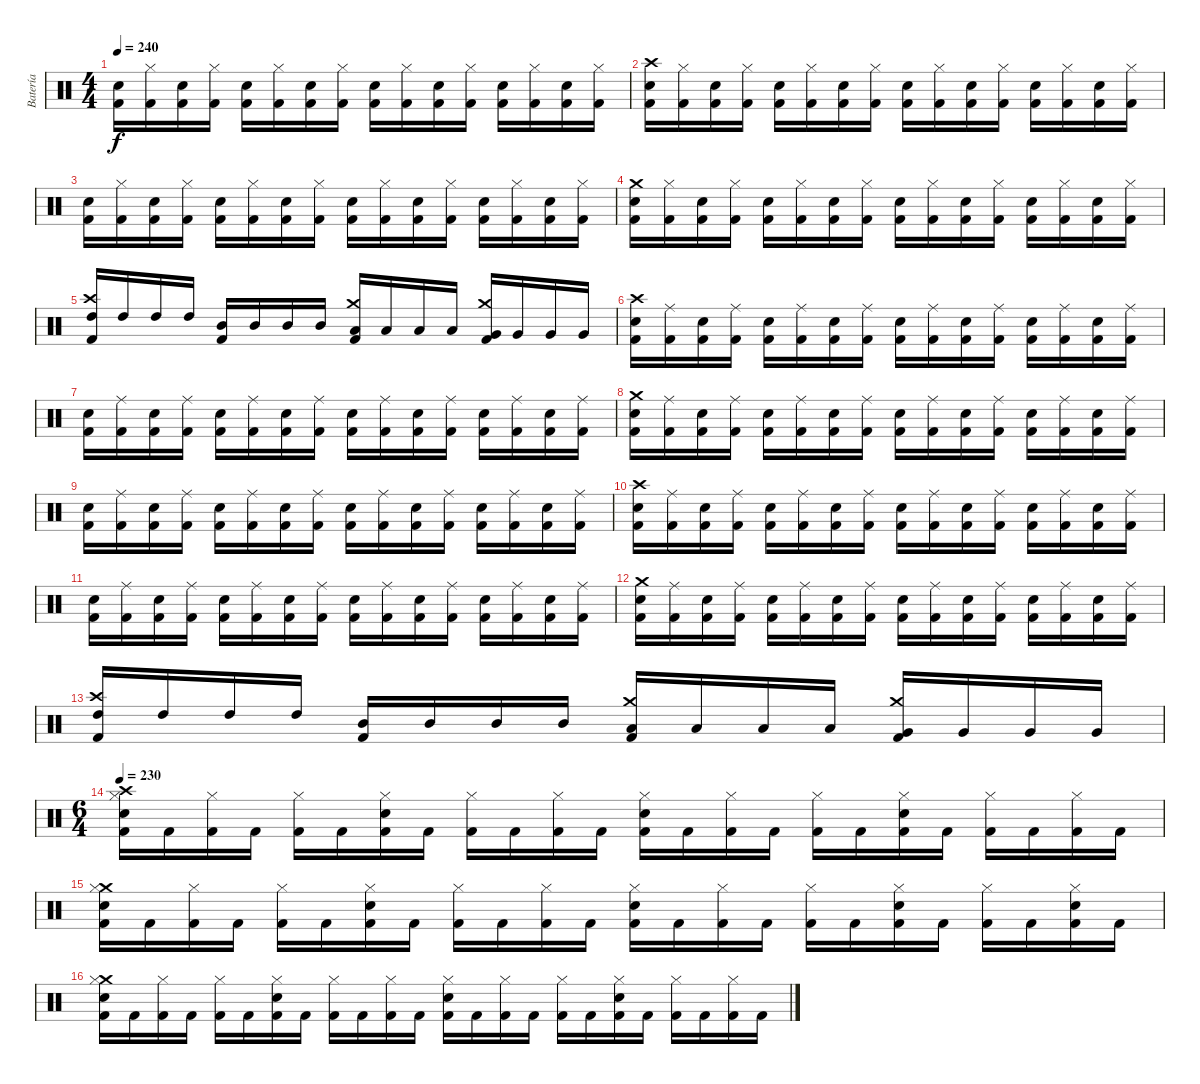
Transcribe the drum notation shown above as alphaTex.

\track ("Batería" "Batería") {instrument percussion}
\staff {score}
\articulation defaults
\ts (4 4)
\tempo 240
\clef neutral
\ks c
("Kick (hit) 2" "Electric Snare (hit)").16{dy f} ("Kick (hit) 2" "Hi-Hat (closed)").16 ("Kick (hit) 2" "Electric Snare (hit)").16 ("Kick (hit) 2" "Hi-Hat (closed)").16 ("Kick (hit) 2" "Electric Snare (hit)").16 ("Kick (hit) 2" "Hi-Hat (closed)").16 ("Kick (hit) 2" "Electric Snare (hit)").16 ("Kick (hit) 2" "Hi-Hat (closed)").16 ("Kick (hit) 2" "Electric Snare (hit)").16 ("Kick (hit) 2" "Hi-Hat (closed)").16 ("Kick (hit) 2" "Electric Snare (hit)").16 ("Kick (hit) 2" "Hi-Hat (closed)").16 ("Kick (hit) 2" "Electric Snare (hit)").16 ("Kick (hit) 2" "Hi-Hat (closed)").16 ("Kick (hit) 2" "Electric Snare (hit)").16 ("Kick (hit) 2" "Hi-Hat (closed)").16 |
("Crash high (hit)" "Kick (hit) 2" "Electric Snare (hit)").16 ("Kick (hit) 2" "Hi-Hat (closed)").16 ("Kick (hit) 2" "Electric Snare (hit)").16 ("Kick (hit) 2" "Hi-Hat (closed)").16 ("Kick (hit) 2" "Electric Snare (hit)").16 ("Kick (hit) 2" "Hi-Hat (closed)").16 ("Kick (hit) 2" "Electric Snare (hit)").16 ("Kick (hit) 2" "Hi-Hat (closed)").16 ("Kick (hit) 2" "Electric Snare (hit)").16 ("Kick (hit) 2" "Hi-Hat (closed)").16 ("Kick (hit) 2" "Electric Snare (hit)").16 ("Kick (hit) 2" "Hi-Hat (closed)").16 ("Kick (hit) 2" "Electric Snare (hit)").16 ("Kick (hit) 2" "Hi-Hat (closed)").16 ("Kick (hit) 2" "Electric Snare (hit)").16 ("Kick (hit) 2" "Hi-Hat (closed)").16 |
("Kick (hit) 2" "Electric Snare (hit)").16 ("Kick (hit) 2" "Hi-Hat (closed)").16 ("Kick (hit) 2" "Electric Snare (hit)").16 ("Kick (hit) 2" "Hi-Hat (closed)").16 ("Kick (hit) 2" "Electric Snare (hit)").16 ("Kick (hit) 2" "Hi-Hat (closed)").16 ("Kick (hit) 2" "Electric Snare (hit)").16 ("Kick (hit) 2" "Hi-Hat (closed)").16 ("Kick (hit) 2" "Electric Snare (hit)").16 ("Kick (hit) 2" "Hi-Hat (closed)").16 ("Kick (hit) 2" "Electric Snare (hit)").16 ("Kick (hit) 2" "Hi-Hat (closed)").16 ("Kick (hit) 2" "Electric Snare (hit)").16 ("Kick (hit) 2" "Hi-Hat (closed)").16 ("Kick (hit) 2" "Electric Snare (hit)").16 ("Kick (hit) 2" "Hi-Hat (closed)").16 |
("Crash medium (hit)" "Kick (hit) 2" "Electric Snare (hit)").16 ("Kick (hit) 2" "Hi-Hat (closed)").16 ("Kick (hit) 2" "Electric Snare (hit)").16 ("Kick (hit) 2" "Hi-Hat (closed)").16 ("Kick (hit) 2" "Electric Snare (hit)").16 ("Kick (hit) 2" "Hi-Hat (closed)").16 ("Kick (hit) 2" "Electric Snare (hit)").16 ("Kick (hit) 2" "Hi-Hat (closed)").16 ("Kick (hit) 2" "Electric Snare (hit)").16 ("Kick (hit) 2" "Hi-Hat (closed)").16 ("Kick (hit) 2" "Electric Snare (hit)").16 ("Kick (hit) 2" "Hi-Hat (closed)").16 ("Kick (hit) 2" "Electric Snare (hit)").16 ("Kick (hit) 2" "Hi-Hat (closed)").16 ("Kick (hit) 2" "Electric Snare (hit)").16 ("Kick (hit) 2" "Hi-Hat (closed)").16 |
("Crash high (hit)" "Kick (hit) 2" "High Tom (hit)").16 "High Tom (hit)".16 "High Tom (hit)".16 "High Tom (hit)".16 ("Kick (hit) 2" "Mid Tom (hit)").16 "Mid Tom (hit)".16 "Mid Tom (hit)".16 "Mid Tom (hit)".16 ("Crash medium (hit)" "Kick (hit) 2" "Low Tom (hit)").16 "Low Tom (hit)".16 "Low Tom (hit)".16 "Low Tom (hit)".16 ("Crash medium (hit)" "Kick (hit) 2" "Very Low Tom (hit)").16 "Very Low Tom (hit)".16 "Very Low Tom (hit)".16 "Very Low Tom (hit)".16 |
("Crash high (hit)" "Kick (hit) 2" "Electric Snare (hit)").16 ("Kick (hit) 2" "Ride (middle)").16 ("Kick (hit) 2" "Electric Snare (hit)").16 ("Kick (hit) 2" "Ride (middle)").16 ("Kick (hit) 2" "Electric Snare (hit)").16 ("Kick (hit) 2" "Ride (middle)").16 ("Kick (hit) 2" "Electric Snare (hit)").16 ("Kick (hit) 2" "Ride (middle)").16 ("Kick (hit) 2" "Electric Snare (hit)").16 ("Kick (hit) 2" "Ride (middle)").16 ("Kick (hit) 2" "Electric Snare (hit)").16 ("Kick (hit) 2" "Ride (middle)").16 ("Kick (hit) 2" "Electric Snare (hit)").16 ("Kick (hit) 2" "Ride (middle)").16 ("Kick (hit) 2" "Electric Snare (hit)").16 ("Kick (hit) 2" "Ride (middle)").16 |
("Kick (hit) 2" "Electric Snare (hit)").16 ("Kick (hit) 2" "Ride (middle)").16 ("Kick (hit) 2" "Electric Snare (hit)").16 ("Kick (hit) 2" "Ride (middle)").16 ("Kick (hit) 2" "Electric Snare (hit)").16 ("Kick (hit) 2" "Ride (middle)").16 ("Kick (hit) 2" "Electric Snare (hit)").16 ("Kick (hit) 2" "Ride (middle)").16 ("Kick (hit) 2" "Electric Snare (hit)").16 ("Kick (hit) 2" "Ride (middle)").16 ("Kick (hit) 2" "Electric Snare (hit)").16 ("Kick (hit) 2" "Ride (middle)").16 ("Kick (hit) 2" "Electric Snare (hit)").16 ("Kick (hit) 2" "Ride (middle)").16 ("Kick (hit) 2" "Electric Snare (hit)").16 ("Kick (hit) 2" "Ride (middle)").16 |
("Crash medium (hit)" "Kick (hit) 2" "Electric Snare (hit)").16 ("Kick (hit) 2" "Ride (middle)").16 ("Kick (hit) 2" "Electric Snare (hit)").16 ("Kick (hit) 2" "Ride (middle)").16 ("Kick (hit) 2" "Electric Snare (hit)").16 ("Kick (hit) 2" "Ride (middle)").16 ("Kick (hit) 2" "Electric Snare (hit)").16 ("Kick (hit) 2" "Ride (middle)").16 ("Kick (hit) 2" "Electric Snare (hit)").16 ("Kick (hit) 2" "Ride (middle)").16 ("Kick (hit) 2" "Electric Snare (hit)").16 ("Kick (hit) 2" "Ride (middle)").16 ("Kick (hit) 2" "Electric Snare (hit)").16 ("Kick (hit) 2" "Ride (middle)").16 ("Kick (hit) 2" "Electric Snare (hit)").16 ("Kick (hit) 2" "Ride (middle)").16 |
("Kick (hit) 2" "Electric Snare (hit)").16 ("Kick (hit) 2" "Ride (middle)").16 ("Kick (hit) 2" "Electric Snare (hit)").16 ("Kick (hit) 2" "Ride (middle)").16 ("Kick (hit) 2" "Electric Snare (hit)").16 ("Kick (hit) 2" "Ride (middle)").16 ("Kick (hit) 2" "Electric Snare (hit)").16 ("Kick (hit) 2" "Ride (middle)").16 ("Kick (hit) 2" "Electric Snare (hit)").16 ("Kick (hit) 2" "Ride (middle)").16 ("Kick (hit) 2" "Electric Snare (hit)").16 ("Kick (hit) 2" "Ride (middle)").16 ("Kick (hit) 2" "Electric Snare (hit)").16 ("Kick (hit) 2" "Ride (middle)").16 ("Kick (hit) 2" "Electric Snare (hit)").16 ("Kick (hit) 2" "Ride (middle)").16 |
("Crash high (hit)" "Kick (hit) 2" "Electric Snare (hit)").16 ("Kick (hit) 2" "Ride (middle)").16 ("Kick (hit) 2" "Electric Snare (hit)").16 ("Kick (hit) 2" "Ride (middle)").16 ("Kick (hit) 2" "Electric Snare (hit)").16 ("Kick (hit) 2" "Ride (middle)").16 ("Kick (hit) 2" "Electric Snare (hit)").16 ("Kick (hit) 2" "Ride (middle)").16 ("Kick (hit) 2" "Electric Snare (hit)").16 ("Kick (hit) 2" "Ride (middle)").16 ("Kick (hit) 2" "Electric Snare (hit)").16 ("Kick (hit) 2" "Ride (middle)").16 ("Kick (hit) 2" "Electric Snare (hit)").16 ("Kick (hit) 2" "Ride (middle)").16 ("Kick (hit) 2" "Electric Snare (hit)").16 ("Kick (hit) 2" "Ride (middle)").16 |
("Kick (hit) 2" "Electric Snare (hit)").16 ("Kick (hit) 2" "Ride (middle)").16 ("Kick (hit) 2" "Electric Snare (hit)").16 ("Kick (hit) 2" "Ride (middle)").16 ("Kick (hit) 2" "Electric Snare (hit)").16 ("Kick (hit) 2" "Ride (middle)").16 ("Kick (hit) 2" "Electric Snare (hit)").16 ("Kick (hit) 2" "Ride (middle)").16 ("Kick (hit) 2" "Electric Snare (hit)").16 ("Kick (hit) 2" "Ride (middle)").16 ("Kick (hit) 2" "Electric Snare (hit)").16 ("Kick (hit) 2" "Ride (middle)").16 ("Kick (hit) 2" "Electric Snare (hit)").16 ("Kick (hit) 2" "Ride (middle)").16 ("Kick (hit) 2" "Electric Snare (hit)").16 ("Kick (hit) 2" "Ride (middle)").16 |
("Crash medium (hit)" "Kick (hit) 2" "Electric Snare (hit)").16 ("Kick (hit) 2" "Ride (middle)").16 ("Kick (hit) 2" "Electric Snare (hit)").16 ("Kick (hit) 2" "Ride (middle)").16 ("Kick (hit) 2" "Electric Snare (hit)").16 ("Kick (hit) 2" "Ride (middle)").16 ("Kick (hit) 2" "Electric Snare (hit)").16 ("Kick (hit) 2" "Ride (middle)").16 ("Kick (hit) 2" "Electric Snare (hit)").16 ("Kick (hit) 2" "Ride (middle)").16 ("Kick (hit) 2" "Electric Snare (hit)").16 ("Kick (hit) 2" "Ride (middle)").16 ("Kick (hit) 2" "Electric Snare (hit)").16 ("Kick (hit) 2" "Ride (middle)").16 ("Kick (hit) 2" "Electric Snare (hit)").16 ("Kick (hit) 2" "Ride (middle)").16 |
("Crash high (hit)" "Kick (hit) 2" "High Tom (hit)").16 "High Tom (hit)".16 "High Tom (hit)".16 "High Tom (hit)".16 ("Kick (hit) 2" "Mid Tom (hit)").16 "Mid Tom (hit)".16 "Mid Tom (hit)".16 "Mid Tom (hit)".16 ("Crash medium (hit)" "Kick (hit) 2" "Low Tom (hit)").16 "Low Tom (hit)".16 "Low Tom (hit)".16 "Low Tom (hit)".16 ("Crash medium (hit)" "Kick (hit) 2" "Very Low Tom (hit)").16 "Very Low Tom (hit)".16 "Very Low Tom (hit)".16 "Very Low Tom (hit)".16 |
\ts (6 4)
\tempo 230
("Crash high (hit)" "Electric Snare (hit)" "Hi-Hat (closed)" "Kick (hit) 2").16 "Kick (hit) 2".16 ("Hi-Hat (closed)" "Kick (hit) 2").16 "Kick (hit) 2".16 ("Hi-Hat (closed)" "Kick (hit) 2").16 "Kick (hit) 2".16 ("Electric Snare (hit)" "Hi-Hat (closed)" "Kick (hit) 2").16 "Kick (hit) 2".16 ("Hi-Hat (closed)" "Kick (hit) 2").16 "Kick (hit) 2".16 ("Hi-Hat (closed)" "Kick (hit) 2").16 "Kick (hit) 2".16 ("Electric Snare (hit)" "Hi-Hat (closed)" "Kick (hit) 2").16 "Kick (hit) 2".16 ("Hi-Hat (closed)" "Kick (hit) 2").16 "Kick (hit) 2".16 ("Hi-Hat (closed)" "Kick (hit) 2").16 "Kick (hit) 2".16 ("Electric Snare (hit)" "Hi-Hat (closed)" "Kick (hit) 2").16 "Kick (hit) 2".16 ("Hi-Hat (closed)" "Kick (hit) 2").16 "Kick (hit) 2".16 ("Hi-Hat (closed)" "Kick (hit) 2").16 "Kick (hit) 2".16 |
("Crash medium (hit)" "Electric Snare (hit)" "Hi-Hat (closed)" "Kick (hit) 2").16 "Kick (hit) 2".16 ("Hi-Hat (closed)" "Kick (hit) 2").16 "Kick (hit) 2".16 ("Hi-Hat (closed)" "Kick (hit) 2").16 "Kick (hit) 2".16 ("Electric Snare (hit)" "Hi-Hat (closed)" "Kick (hit) 2").16 "Kick (hit) 2".16 ("Hi-Hat (closed)" "Kick (hit) 2").16 "Kick (hit) 2".16 ("Hi-Hat (closed)" "Kick (hit) 2").16 "Kick (hit) 2".16 ("Electric Snare (hit)" "Hi-Hat (closed)" "Kick (hit) 2").16 "Kick (hit) 2".16 ("Hi-Hat (closed)" "Kick (hit) 2").16 "Kick (hit) 2".16 ("Hi-Hat (closed)" "Kick (hit) 2").16 "Kick (hit) 2".16 ("Electric Snare (hit)" "Hi-Hat (closed)" "Kick (hit) 2").16 "Kick (hit) 2".16 ("Hi-Hat (closed)" "Kick (hit) 2").16 "Kick (hit) 2".16 ("Electric Snare (hit)" "Hi-Hat (closed)" "Kick (hit) 2").16 "Kick (hit) 2".16 |
("Crash medium (hit)" "Electric Snare (hit)" "Hi-Hat (closed)" "Kick (hit) 2").16 "Kick (hit) 2".16 ("Hi-Hat (closed)" "Kick (hit) 2").16 "Kick (hit) 2".16 ("Hi-Hat (closed)" "Kick (hit) 2").16 "Kick (hit) 2".16 ("Electric Snare (hit)" "Hi-Hat (closed)" "Kick (hit) 2").16 "Kick (hit) 2".16 ("Hi-Hat (closed)" "Kick (hit) 2").16 "Kick (hit) 2".16 ("Hi-Hat (closed)" "Kick (hit) 2").16 "Kick (hit) 2".16 ("Electric Snare (hit)" "Hi-Hat (closed)" "Kick (hit) 2").16 "Kick (hit) 2".16 ("Hi-Hat (closed)" "Kick (hit) 2").16 "Kick (hit) 2".16 ("Hi-Hat (closed)" "Kick (hit) 2").16 "Kick (hit) 2".16 ("Electric Snare (hit)" "Hi-Hat (closed)" "Kick (hit) 2").16 "Kick (hit) 2".16 ("Hi-Hat (closed)" "Kick (hit) 2").16 "Kick (hit) 2".16 ("Hi-Hat (closed)" "Kick (hit) 2").16 "Kick (hit) 2".16
